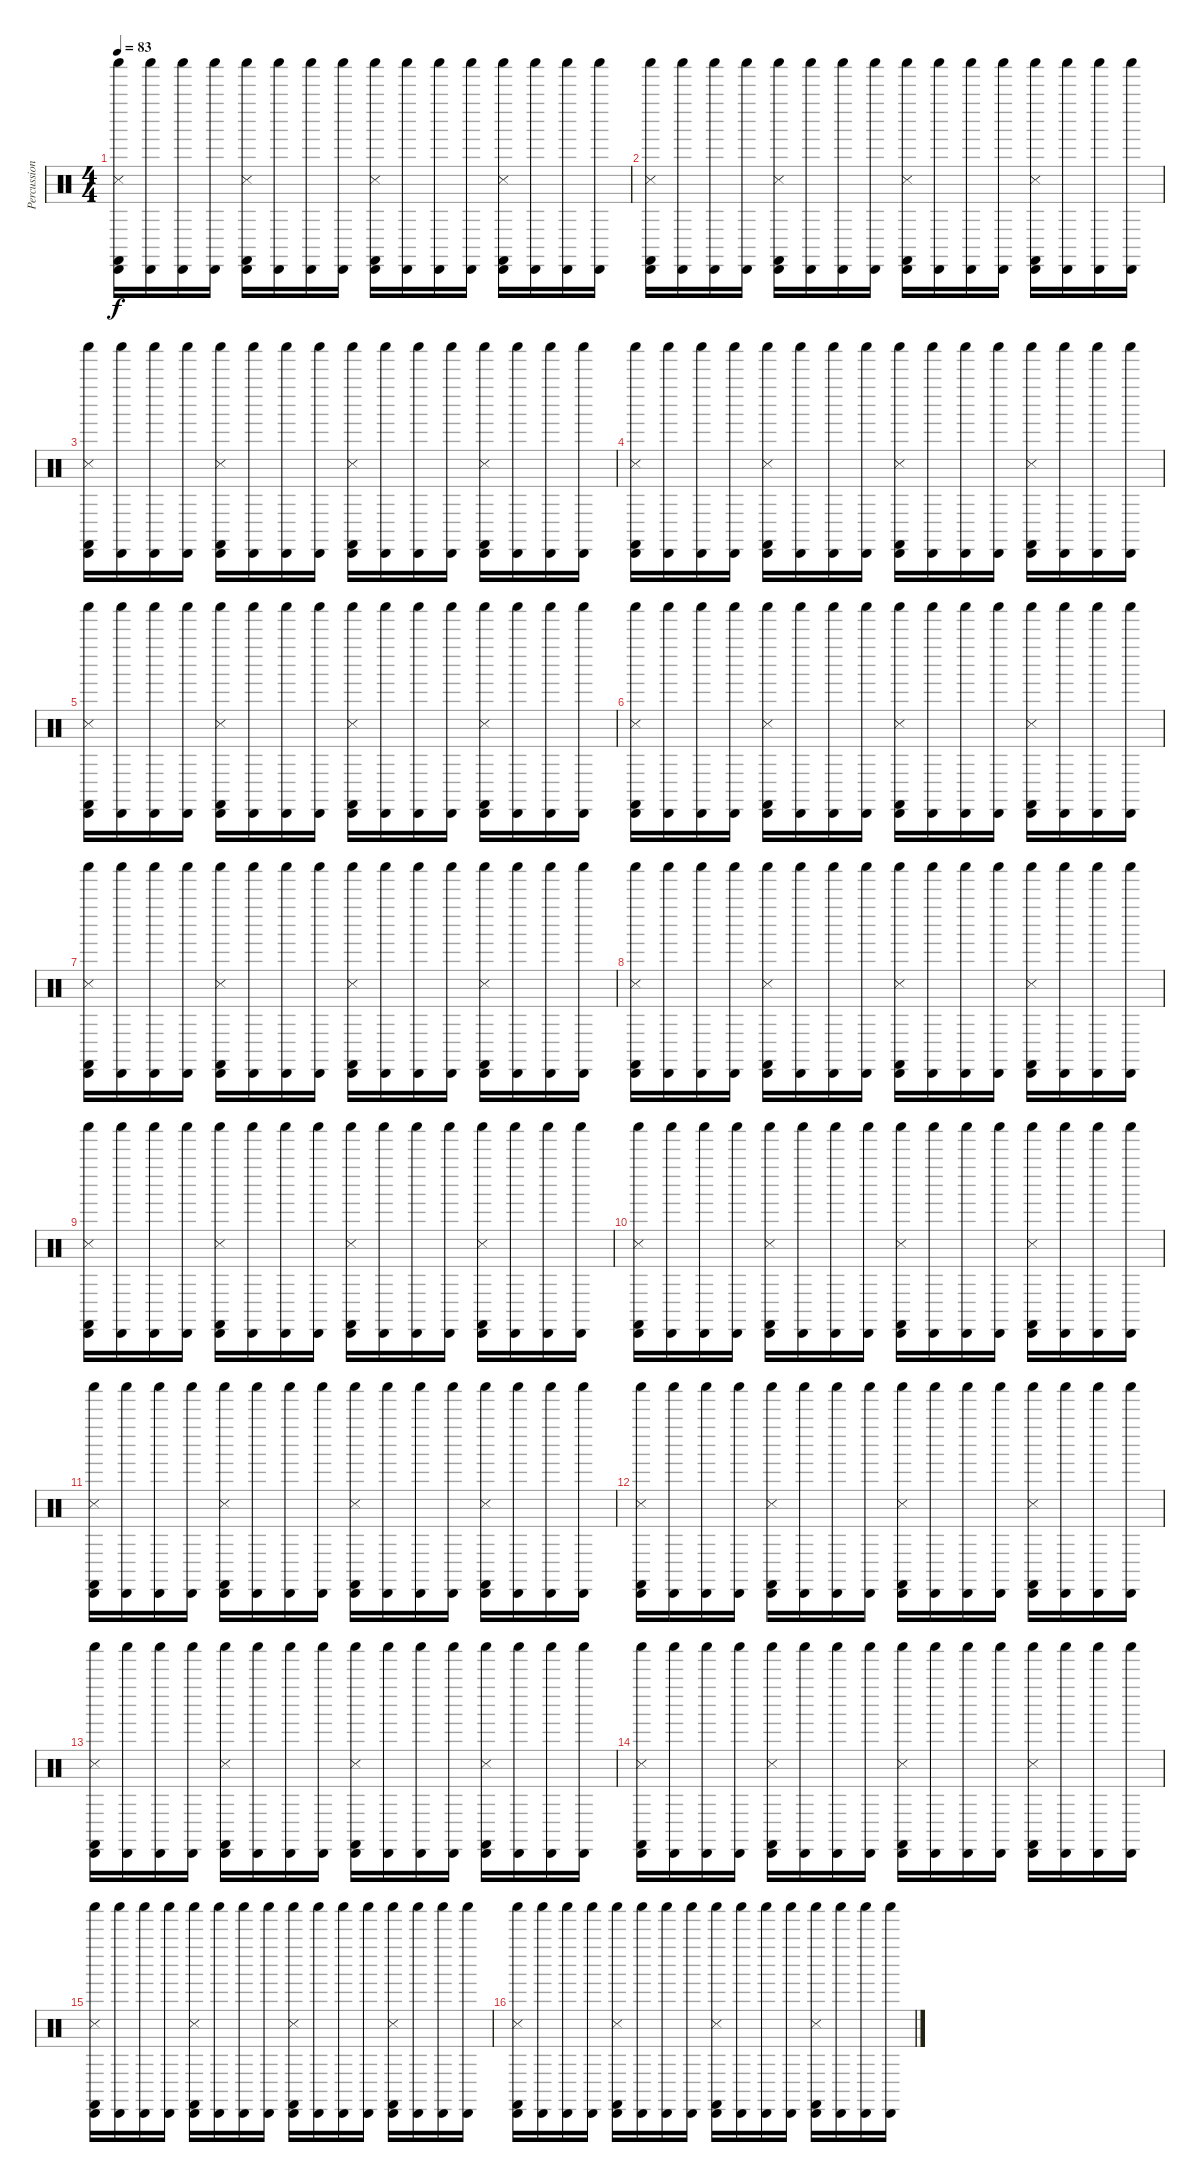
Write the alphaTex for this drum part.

\track ("Percussion" "Percussion") {instrument percussion}
\staff {score}
\articulation defaults
\ts (4 4)
\tempo 83
\clef neutral
\ks c
("Shaker (hit)" "Castanets (hit)" "Snare (side stick) 3" "Cabasa (hit)").16{dy f} ("Shaker (hit)" "Cabasa (hit)").16 ("Shaker (hit)" "Cabasa (hit)").16 ("Shaker (hit)" "Cabasa (hit)").16 ("Shaker (hit)" "Castanets (hit)" "Snare (side stick) 3" "Cabasa (hit)").16 ("Shaker (hit)" "Cabasa (hit)").16 ("Shaker (hit)" "Cabasa (hit)").16 ("Shaker (hit)" "Cabasa (hit)").16 ("Shaker (hit)" "Castanets (hit)" "Snare (side stick) 3" "Cabasa (hit)").16 ("Shaker (hit)" "Cabasa (hit)").16 ("Shaker (hit)" "Cabasa (hit)").16 ("Shaker (hit)" "Cabasa (hit)").16 ("Shaker (hit)" "Castanets (hit)" "Snare (side stick) 3" "Cabasa (hit)").16 ("Shaker (hit)" "Cabasa (hit)").16 ("Shaker (hit)" "Cabasa (hit)").16 ("Shaker (hit)" "Cabasa (hit)").16 |
("Shaker (hit)" "Castanets (hit)" "Snare (side stick) 3" "Cabasa (hit)").16 ("Shaker (hit)" "Cabasa (hit)").16 ("Shaker (hit)" "Cabasa (hit)").16 ("Shaker (hit)" "Cabasa (hit)").16 ("Shaker (hit)" "Castanets (hit)" "Snare (side stick) 3" "Cabasa (hit)").16 ("Shaker (hit)" "Cabasa (hit)").16 ("Shaker (hit)" "Cabasa (hit)").16 ("Shaker (hit)" "Cabasa (hit)").16 ("Shaker (hit)" "Castanets (hit)" "Snare (side stick) 3" "Cabasa (hit)").16 ("Shaker (hit)" "Cabasa (hit)").16 ("Shaker (hit)" "Cabasa (hit)").16 ("Shaker (hit)" "Cabasa (hit)").16 ("Shaker (hit)" "Castanets (hit)" "Snare (side stick) 3" "Cabasa (hit)").16 ("Shaker (hit)" "Cabasa (hit)").16 ("Shaker (hit)" "Cabasa (hit)").16 ("Shaker (hit)" "Cabasa (hit)").16 |
("Shaker (hit)" "Castanets (hit)" "Snare (side stick) 3" "Cabasa (hit)").16 ("Shaker (hit)" "Cabasa (hit)").16 ("Shaker (hit)" "Cabasa (hit)").16 ("Shaker (hit)" "Cabasa (hit)").16 ("Shaker (hit)" "Castanets (hit)" "Snare (side stick) 3" "Cabasa (hit)").16 ("Shaker (hit)" "Cabasa (hit)").16 ("Shaker (hit)" "Cabasa (hit)").16 ("Shaker (hit)" "Cabasa (hit)").16 ("Shaker (hit)" "Castanets (hit)" "Snare (side stick) 3" "Cabasa (hit)").16 ("Shaker (hit)" "Cabasa (hit)").16 ("Shaker (hit)" "Cabasa (hit)").16 ("Shaker (hit)" "Cabasa (hit)").16 ("Shaker (hit)" "Castanets (hit)" "Snare (side stick) 3" "Cabasa (hit)").16 ("Shaker (hit)" "Cabasa (hit)").16 ("Shaker (hit)" "Cabasa (hit)").16 ("Shaker (hit)" "Cabasa (hit)").16 |
("Shaker (hit)" "Castanets (hit)" "Snare (side stick) 3" "Cabasa (hit)").16 ("Shaker (hit)" "Cabasa (hit)").16 ("Shaker (hit)" "Cabasa (hit)").16 ("Shaker (hit)" "Cabasa (hit)").16 ("Shaker (hit)" "Castanets (hit)" "Snare (side stick) 3" "Cabasa (hit)").16 ("Shaker (hit)" "Cabasa (hit)").16 ("Shaker (hit)" "Cabasa (hit)").16 ("Shaker (hit)" "Cabasa (hit)").16 ("Shaker (hit)" "Castanets (hit)" "Snare (side stick) 3" "Cabasa (hit)").16 ("Shaker (hit)" "Cabasa (hit)").16 ("Shaker (hit)" "Cabasa (hit)").16 ("Shaker (hit)" "Cabasa (hit)").16 ("Shaker (hit)" "Castanets (hit)" "Snare (side stick) 3" "Cabasa (hit)").16 ("Shaker (hit)" "Cabasa (hit)").16 ("Shaker (hit)" "Cabasa (hit)").16 ("Shaker (hit)" "Cabasa (hit)").16 |
("Shaker (hit)" "Castanets (hit)" "Snare (side stick) 3" "Cabasa (hit)").16 ("Shaker (hit)" "Cabasa (hit)").16 ("Shaker (hit)" "Cabasa (hit)").16 ("Shaker (hit)" "Cabasa (hit)").16 ("Shaker (hit)" "Castanets (hit)" "Snare (side stick) 3" "Cabasa (hit)").16 ("Shaker (hit)" "Cabasa (hit)").16 ("Shaker (hit)" "Cabasa (hit)").16 ("Shaker (hit)" "Cabasa (hit)").16 ("Shaker (hit)" "Castanets (hit)" "Snare (side stick) 3" "Cabasa (hit)").16 ("Shaker (hit)" "Cabasa (hit)").16 ("Shaker (hit)" "Cabasa (hit)").16 ("Shaker (hit)" "Cabasa (hit)").16 ("Shaker (hit)" "Castanets (hit)" "Snare (side stick) 3" "Cabasa (hit)").16 ("Shaker (hit)" "Cabasa (hit)").16 ("Shaker (hit)" "Cabasa (hit)").16 ("Shaker (hit)" "Cabasa (hit)").16 |
("Shaker (hit)" "Castanets (hit)" "Snare (side stick) 3" "Cabasa (hit)").16 ("Shaker (hit)" "Cabasa (hit)").16 ("Shaker (hit)" "Cabasa (hit)").16 ("Shaker (hit)" "Cabasa (hit)").16 ("Shaker (hit)" "Castanets (hit)" "Snare (side stick) 3" "Cabasa (hit)").16 ("Shaker (hit)" "Cabasa (hit)").16 ("Shaker (hit)" "Cabasa (hit)").16 ("Shaker (hit)" "Cabasa (hit)").16 ("Shaker (hit)" "Castanets (hit)" "Snare (side stick) 3" "Cabasa (hit)").16 ("Shaker (hit)" "Cabasa (hit)").16 ("Shaker (hit)" "Cabasa (hit)").16 ("Shaker (hit)" "Cabasa (hit)").16 ("Shaker (hit)" "Castanets (hit)" "Snare (side stick) 3" "Cabasa (hit)").16 ("Shaker (hit)" "Cabasa (hit)").16 ("Shaker (hit)" "Cabasa (hit)").16 ("Shaker (hit)" "Cabasa (hit)").16 |
("Shaker (hit)" "Castanets (hit)" "Snare (side stick) 3" "Cabasa (hit)").16 ("Shaker (hit)" "Cabasa (hit)").16 ("Shaker (hit)" "Cabasa (hit)").16 ("Shaker (hit)" "Cabasa (hit)").16 ("Shaker (hit)" "Castanets (hit)" "Snare (side stick) 3" "Cabasa (hit)").16 ("Shaker (hit)" "Cabasa (hit)").16 ("Shaker (hit)" "Cabasa (hit)").16 ("Shaker (hit)" "Cabasa (hit)").16 ("Shaker (hit)" "Castanets (hit)" "Snare (side stick) 3" "Cabasa (hit)").16 ("Shaker (hit)" "Cabasa (hit)").16 ("Shaker (hit)" "Cabasa (hit)").16 ("Shaker (hit)" "Cabasa (hit)").16 ("Shaker (hit)" "Castanets (hit)" "Snare (side stick) 3" "Cabasa (hit)").16 ("Shaker (hit)" "Cabasa (hit)").16 ("Shaker (hit)" "Cabasa (hit)").16 ("Shaker (hit)" "Cabasa (hit)").16 |
("Shaker (hit)" "Castanets (hit)" "Snare (side stick) 3" "Cabasa (hit)").16 ("Shaker (hit)" "Cabasa (hit)").16 ("Shaker (hit)" "Cabasa (hit)").16 ("Shaker (hit)" "Cabasa (hit)").16 ("Shaker (hit)" "Castanets (hit)" "Snare (side stick) 3" "Cabasa (hit)").16 ("Shaker (hit)" "Cabasa (hit)").16 ("Shaker (hit)" "Cabasa (hit)").16 ("Shaker (hit)" "Cabasa (hit)").16 ("Shaker (hit)" "Castanets (hit)" "Snare (side stick) 3" "Cabasa (hit)").16 ("Shaker (hit)" "Cabasa (hit)").16 ("Shaker (hit)" "Cabasa (hit)").16 ("Shaker (hit)" "Cabasa (hit)").16 ("Shaker (hit)" "Castanets (hit)" "Snare (side stick) 3" "Cabasa (hit)").16 ("Shaker (hit)" "Cabasa (hit)").16 ("Shaker (hit)" "Cabasa (hit)").16 ("Shaker (hit)" "Cabasa (hit)").16 |
("Shaker (hit)" "Castanets (hit)" "Snare (side stick) 3" "Cabasa (hit)").16 ("Shaker (hit)" "Cabasa (hit)").16 ("Shaker (hit)" "Cabasa (hit)").16 ("Shaker (hit)" "Cabasa (hit)").16 ("Shaker (hit)" "Castanets (hit)" "Snare (side stick) 3" "Cabasa (hit)").16 ("Shaker (hit)" "Cabasa (hit)").16 ("Shaker (hit)" "Cabasa (hit)").16 ("Shaker (hit)" "Cabasa (hit)").16 ("Shaker (hit)" "Castanets (hit)" "Snare (side stick) 3" "Cabasa (hit)").16 ("Shaker (hit)" "Cabasa (hit)").16 ("Shaker (hit)" "Cabasa (hit)").16 ("Shaker (hit)" "Cabasa (hit)").16 ("Shaker (hit)" "Castanets (hit)" "Snare (side stick) 3" "Cabasa (hit)").16 ("Shaker (hit)" "Cabasa (hit)").16 ("Shaker (hit)" "Cabasa (hit)").16 ("Shaker (hit)" "Cabasa (hit)").16 |
("Shaker (hit)" "Castanets (hit)" "Snare (side stick) 3" "Cabasa (hit)").16 ("Shaker (hit)" "Cabasa (hit)").16 ("Shaker (hit)" "Cabasa (hit)").16 ("Shaker (hit)" "Cabasa (hit)").16 ("Shaker (hit)" "Castanets (hit)" "Snare (side stick) 3" "Cabasa (hit)").16 ("Shaker (hit)" "Cabasa (hit)").16 ("Shaker (hit)" "Cabasa (hit)").16 ("Shaker (hit)" "Cabasa (hit)").16 ("Shaker (hit)" "Castanets (hit)" "Snare (side stick) 3" "Cabasa (hit)").16 ("Shaker (hit)" "Cabasa (hit)").16 ("Shaker (hit)" "Cabasa (hit)").16 ("Shaker (hit)" "Cabasa (hit)").16 ("Shaker (hit)" "Castanets (hit)" "Snare (side stick) 3" "Cabasa (hit)").16 ("Shaker (hit)" "Cabasa (hit)").16 ("Shaker (hit)" "Cabasa (hit)").16 ("Shaker (hit)" "Cabasa (hit)").16 |
("Shaker (hit)" "Castanets (hit)" "Snare (side stick) 3" "Cabasa (hit)").16 ("Shaker (hit)" "Cabasa (hit)").16 ("Shaker (hit)" "Cabasa (hit)").16 ("Shaker (hit)" "Cabasa (hit)").16 ("Shaker (hit)" "Castanets (hit)" "Snare (side stick) 3" "Cabasa (hit)").16 ("Shaker (hit)" "Cabasa (hit)").16 ("Shaker (hit)" "Cabasa (hit)").16 ("Shaker (hit)" "Cabasa (hit)").16 ("Shaker (hit)" "Castanets (hit)" "Snare (side stick) 3" "Cabasa (hit)").16 ("Shaker (hit)" "Cabasa (hit)").16 ("Shaker (hit)" "Cabasa (hit)").16 ("Shaker (hit)" "Cabasa (hit)").16 ("Shaker (hit)" "Castanets (hit)" "Snare (side stick) 3" "Cabasa (hit)").16 ("Shaker (hit)" "Cabasa (hit)").16 ("Shaker (hit)" "Cabasa (hit)").16 ("Shaker (hit)" "Cabasa (hit)").16 |
("Shaker (hit)" "Castanets (hit)" "Snare (side stick) 3" "Cabasa (hit)").16 ("Shaker (hit)" "Cabasa (hit)").16 ("Shaker (hit)" "Cabasa (hit)").16 ("Shaker (hit)" "Cabasa (hit)").16 ("Shaker (hit)" "Castanets (hit)" "Snare (side stick) 3" "Cabasa (hit)").16 ("Shaker (hit)" "Cabasa (hit)").16 ("Shaker (hit)" "Cabasa (hit)").16 ("Shaker (hit)" "Cabasa (hit)").16 ("Shaker (hit)" "Castanets (hit)" "Snare (side stick) 3" "Cabasa (hit)").16 ("Shaker (hit)" "Cabasa (hit)").16 ("Shaker (hit)" "Cabasa (hit)").16 ("Shaker (hit)" "Cabasa (hit)").16 ("Shaker (hit)" "Castanets (hit)" "Snare (side stick) 3" "Cabasa (hit)").16 ("Shaker (hit)" "Cabasa (hit)").16 ("Shaker (hit)" "Cabasa (hit)").16 ("Shaker (hit)" "Cabasa (hit)").16 |
("Shaker (hit)" "Castanets (hit)" "Snare (side stick) 3" "Cabasa (hit)").16 ("Shaker (hit)" "Cabasa (hit)").16 ("Shaker (hit)" "Cabasa (hit)").16 ("Shaker (hit)" "Cabasa (hit)").16 ("Shaker (hit)" "Castanets (hit)" "Snare (side stick) 3" "Cabasa (hit)").16 ("Shaker (hit)" "Cabasa (hit)").16 ("Shaker (hit)" "Cabasa (hit)").16 ("Shaker (hit)" "Cabasa (hit)").16 ("Shaker (hit)" "Castanets (hit)" "Snare (side stick) 3" "Cabasa (hit)").16 ("Shaker (hit)" "Cabasa (hit)").16 ("Shaker (hit)" "Cabasa (hit)").16 ("Shaker (hit)" "Cabasa (hit)").16 ("Shaker (hit)" "Castanets (hit)" "Snare (side stick) 3" "Cabasa (hit)").16 ("Shaker (hit)" "Cabasa (hit)").16 ("Shaker (hit)" "Cabasa (hit)").16 ("Shaker (hit)" "Cabasa (hit)").16 |
("Shaker (hit)" "Castanets (hit)" "Snare (side stick) 3" "Cabasa (hit)").16 ("Shaker (hit)" "Cabasa (hit)").16 ("Shaker (hit)" "Cabasa (hit)").16 ("Shaker (hit)" "Cabasa (hit)").16 ("Shaker (hit)" "Castanets (hit)" "Snare (side stick) 3" "Cabasa (hit)").16 ("Shaker (hit)" "Cabasa (hit)").16 ("Shaker (hit)" "Cabasa (hit)").16 ("Shaker (hit)" "Cabasa (hit)").16 ("Shaker (hit)" "Castanets (hit)" "Snare (side stick) 3" "Cabasa (hit)").16 ("Shaker (hit)" "Cabasa (hit)").16 ("Shaker (hit)" "Cabasa (hit)").16 ("Shaker (hit)" "Cabasa (hit)").16 ("Shaker (hit)" "Castanets (hit)" "Snare (side stick) 3" "Cabasa (hit)").16 ("Shaker (hit)" "Cabasa (hit)").16 ("Shaker (hit)" "Cabasa (hit)").16 ("Shaker (hit)" "Cabasa (hit)").16 |
("Shaker (hit)" "Castanets (hit)" "Snare (side stick) 3" "Cabasa (hit)").16 ("Shaker (hit)" "Cabasa (hit)").16 ("Shaker (hit)" "Cabasa (hit)").16 ("Shaker (hit)" "Cabasa (hit)").16 ("Shaker (hit)" "Castanets (hit)" "Snare (side stick) 3" "Cabasa (hit)").16 ("Shaker (hit)" "Cabasa (hit)").16 ("Shaker (hit)" "Cabasa (hit)").16 ("Shaker (hit)" "Cabasa (hit)").16 ("Shaker (hit)" "Castanets (hit)" "Snare (side stick) 3" "Cabasa (hit)").16 ("Shaker (hit)" "Cabasa (hit)").16 ("Shaker (hit)" "Cabasa (hit)").16 ("Shaker (hit)" "Cabasa (hit)").16 ("Shaker (hit)" "Castanets (hit)" "Snare (side stick) 3" "Cabasa (hit)").16 ("Shaker (hit)" "Cabasa (hit)").16 ("Shaker (hit)" "Cabasa (hit)").16 ("Shaker (hit)" "Cabasa (hit)").16 |
("Shaker (hit)" "Castanets (hit)" "Snare (side stick) 3" "Cabasa (hit)").16 ("Shaker (hit)" "Cabasa (hit)").16 ("Shaker (hit)" "Cabasa (hit)").16 ("Shaker (hit)" "Cabasa (hit)").16 ("Shaker (hit)" "Castanets (hit)" "Snare (side stick) 3" "Cabasa (hit)").16 ("Shaker (hit)" "Cabasa (hit)").16 ("Shaker (hit)" "Cabasa (hit)").16 ("Shaker (hit)" "Cabasa (hit)").16 ("Shaker (hit)" "Castanets (hit)" "Snare (side stick) 3" "Cabasa (hit)").16 ("Shaker (hit)" "Cabasa (hit)").16 ("Shaker (hit)" "Cabasa (hit)").16 ("Shaker (hit)" "Cabasa (hit)").16 ("Shaker (hit)" "Castanets (hit)" "Snare (side stick) 3" "Cabasa (hit)").16 ("Shaker (hit)" "Cabasa (hit)").16 ("Shaker (hit)" "Cabasa (hit)").16 ("Shaker (hit)" "Cabasa (hit)").16
